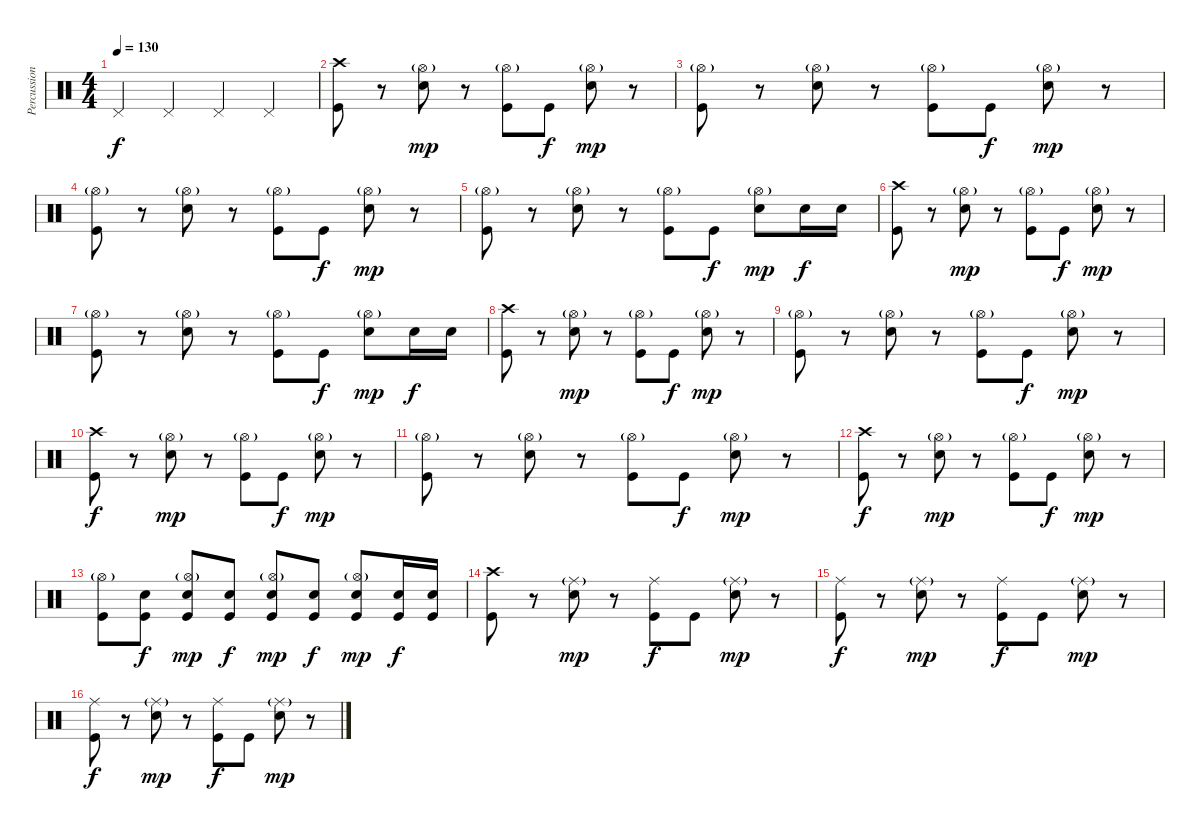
\track ("Percussion" "Percussion") {instrument percussion}
\staff {score}
\articulation defaults
\ts (4 4)
\tempo 130
\clef neutral
\ks c "Pedal Hi-Hat (hit)".4{dy f} "Pedal Hi-Hat (hit)".4 "Pedal Hi-Hat (hit)".4 "Pedal Hi-Hat (hit)".4
|
("Crash high (hit)" "Kick (hit)").8 r.8 ("Hi-Hat (open)"{g} "Electric Snare (hit)").8{dy mp} r.8 ("Hi-Hat (open)"{g} "Kick (hit)").8 "Kick (hit)".8{dy f} ("Hi-Hat (open)"{g} "Electric Snare (hit)").8{dy mp} r.8 |
("Hi-Hat (open)"{g} "Kick (hit)").8 r.8 ("Hi-Hat (open)"{g} "Electric Snare (hit)").8 r.8 ("Hi-Hat (open)"{g} "Kick (hit)").8 "Kick (hit)".8{dy f} ("Hi-Hat (open)"{g} "Electric Snare (hit)").8{dy mp} r.8 |
("Hi-Hat (open)"{g} "Kick (hit)").8 r.8 ("Hi-Hat (open)"{g} "Electric Snare (hit)").8 r.8 ("Hi-Hat (open)"{g} "Kick (hit)").8 "Kick (hit)".8{dy f} ("Hi-Hat (open)"{g} "Electric Snare (hit)").8{dy mp} r.8 |
("Hi-Hat (open)"{g} "Kick (hit)").8 r.8 ("Hi-Hat (open)"{g} "Electric Snare (hit)").8 r.8 ("Hi-Hat (open)"{g} "Kick (hit)").8 "Kick (hit)".8{dy f} ("Hi-Hat (open)"{g} "Electric Snare (hit)").8{dy mp} "Electric Snare (hit)".16{dy f} "Electric Snare (hit)".16 |
("Crash high (hit)" "Kick (hit)").8 r.8 ("Hi-Hat (open)"{g} "Electric Snare (hit)").8{dy mp} r.8 ("Hi-Hat (open)"{g} "Kick (hit)").8 "Kick (hit)".8{dy f} ("Hi-Hat (open)"{g} "Electric Snare (hit)").8{dy mp} r.8 |
("Hi-Hat (open)"{g} "Kick (hit)").8 r.8 ("Hi-Hat (open)"{g} "Electric Snare (hit)").8 r.8 ("Hi-Hat (open)"{g} "Kick (hit)").8 "Kick (hit)".8{dy f} ("Hi-Hat (open)"{g} "Electric Snare (hit)").8{dy mp} "Electric Snare (hit)".16{dy f} "Electric Snare (hit)".16 |
("Crash high (hit)" "Kick (hit)").8 r.8 ("Hi-Hat (open)"{g} "Electric Snare (hit)").8{dy mp} r.8 ("Hi-Hat (open)"{g} "Kick (hit)").8 "Kick (hit)".8{dy f} ("Hi-Hat (open)"{g} "Electric Snare (hit)").8{dy mp} r.8 |
("Hi-Hat (open)"{g} "Kick (hit)").8 r.8 ("Hi-Hat (open)"{g} "Electric Snare (hit)").8 r.8 ("Hi-Hat (open)"{g} "Kick (hit)").8 "Kick (hit)".8{dy f} ("Hi-Hat (open)"{g} "Electric Snare (hit)").8{dy mp} r.8 |
("Crash high (hit)" "Kick (hit)").8{dy f} r.8 ("Hi-Hat (open)"{g} "Electric Snare (hit)").8{dy mp} r.8 ("Hi-Hat (open)"{g} "Kick (hit)").8 "Kick (hit)".8{dy f} ("Hi-Hat (open)"{g} "Electric Snare (hit)").8{dy mp} r.8 |
("Hi-Hat (open)"{g} "Kick (hit)").8 r.8 ("Hi-Hat (open)"{g} "Electric Snare (hit)").8 r.8 ("Hi-Hat (open)"{g} "Kick (hit)").8 "Kick (hit)".8{dy f} ("Hi-Hat (open)"{g} "Electric Snare (hit)").8{dy mp} r.8 |
("Crash high (hit)" "Kick (hit)").8{dy f} r.8 ("Hi-Hat (open)"{g} "Electric Snare (hit)").8{dy mp} r.8 ("Hi-Hat (open)"{g} "Kick (hit)").8 "Kick (hit)".8{dy f} ("Hi-Hat (open)"{g} "Electric Snare (hit)").8{dy mp} r.8 |
("Hi-Hat (open)"{g} "Kick (hit)").8 ("Electric Snare (hit)" "Kick (hit)").8{dy f} ("Hi-Hat (open)"{g} "Electric Snare (hit)" "Kick (hit)").8{dy mp} ("Electric Snare (hit)" "Kick (hit)").8{dy f} ("Hi-Hat (open)"{g} "Electric Snare (hit)" "Kick (hit)").8{dy mp} ("Electric Snare (hit)" "Kick (hit)").8{dy f} ("Hi-Hat (open)"{g} "Electric Snare (hit)" "Kick (hit)").8{dy mp} ("Electric Snare (hit)" "Kick (hit)").16{dy f} ("Electric Snare (hit)" "Kick (hit)").16 |
("Crash high (hit)" "Kick (hit)").8 r.8 ("Ride (middle)"{g} "Electric Snare (hit)").8{dy mp} r.8 ("Ride (middle)" "Kick (hit)").8{dy f} "Kick (hit)".8 ("Ride (middle)"{g} "Electric Snare (hit)").8{dy mp} r.8 |
("Ride (middle)" "Kick (hit)").8{dy f} r.8 ("Ride (middle)"{g} "Electric Snare (hit)").8{dy mp} r.8 ("Ride (middle)" "Kick (hit)").8{dy f} "Kick (hit)".8 ("Ride (middle)"{g} "Electric Snare (hit)").8{dy mp} r.8 |
("Ride (middle)" "Kick (hit)").8{dy f} r.8 ("Ride (middle)"{g} "Electric Snare (hit)").8{dy mp} r.8 ("Ride (middle)" "Kick (hit)").8{dy f} "Kick (hit)".8 ("Ride (middle)"{g} "Electric Snare (hit)").8{dy mp} r.8
